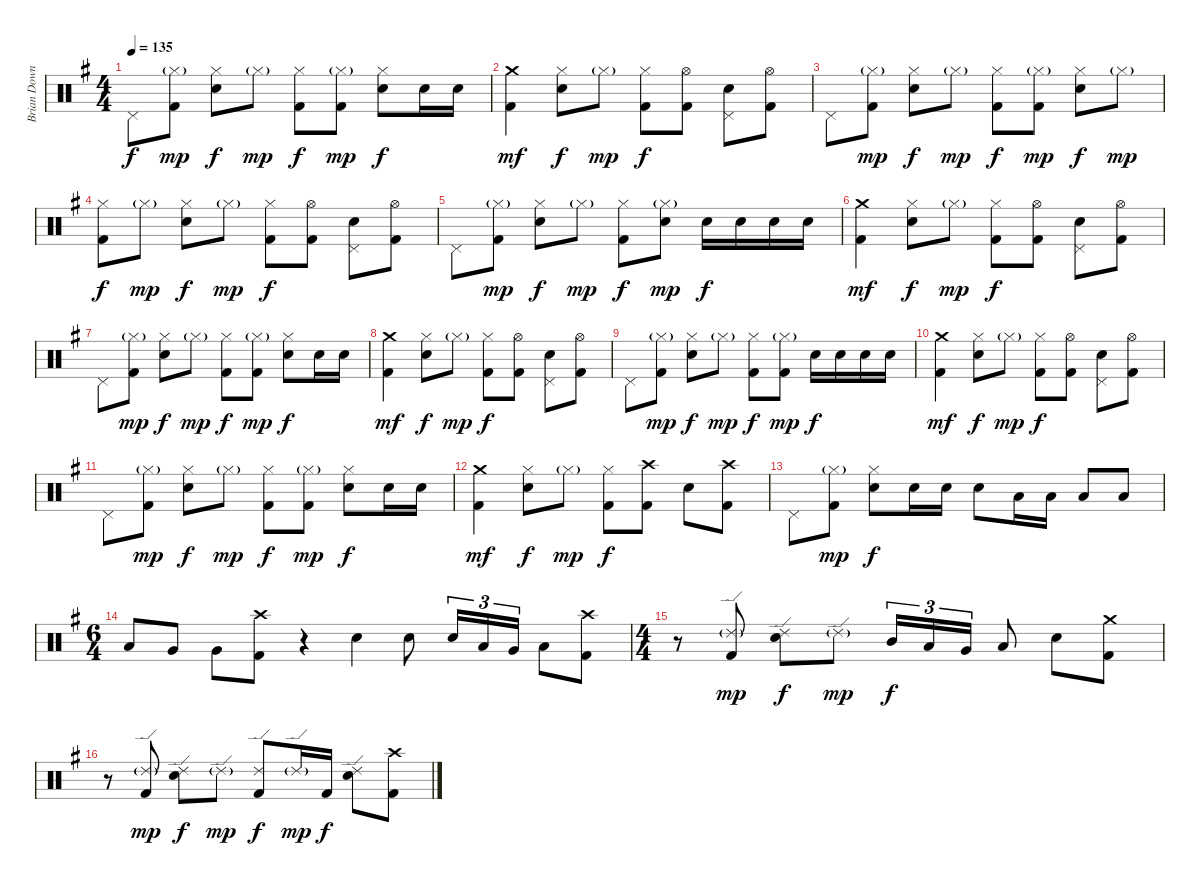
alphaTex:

\track ("Brian Downey" "Brian Down") {instrument percussion}
\staff {score}
\articulation defaults
\ts (4 4)
\tempo 135
\clef neutral
\ks eminor "Pedal Hi-Hat (hit)".8{dy f}
("Hi-Hat (closed)"{g} "Kick (hit) 2").8{dy mp} ("Hi-Hat (closed)" "Electric Snare (hit)").8{dy f} "Hi-Hat (closed)"{g}.8{dy mp} ("Hi-Hat (closed)" "Kick (hit) 2").8{dy f} ("Hi-Hat (closed)"{g} "Kick (hit) 2").8{dy mp} ("Hi-Hat (closed)" "Electric Snare (hit)").8{dy f} "Electric Snare (hit)".16 "Electric Snare (hit)".16 |
("Crash medium (hit)" "Kick (hit) 2").4{dy mf} ("Hi-Hat (closed)" "Electric Snare (hit)").8{dy f} "Hi-Hat (closed)"{g}.8{dy mp} ("Hi-Hat (closed)" "Kick (hit) 2").8{dy f} ("Hi-Hat (open)" "Kick (hit) 2").8 ("Pedal Hi-Hat (hit)" "Electric Snare (hit)").8 ("Hi-Hat (open)" "Kick (hit) 2").8 |
"Pedal Hi-Hat (hit)".8 ("Hi-Hat (closed)"{g} "Kick (hit) 2").8{dy mp} ("Hi-Hat (closed)" "Electric Snare (hit)").8{dy f} "Hi-Hat (closed)"{g}.8{dy mp} ("Hi-Hat (closed)" "Kick (hit) 2").8{dy f} ("Hi-Hat (closed)"{g} "Kick (hit) 2").8{dy mp} ("Hi-Hat (closed)" "Electric Snare (hit)").8{dy f} "Hi-Hat (closed)"{g}.8{dy mp} |
("Hi-Hat (closed)" "Kick (hit) 2").8{dy f} "Hi-Hat (closed)"{g}.8{dy mp} ("Hi-Hat (closed)" "Electric Snare (hit)").8{dy f} "Hi-Hat (closed)"{g}.8{dy mp} ("Hi-Hat (closed)" "Kick (hit) 2").8{dy f} ("Hi-Hat (open)" "Kick (hit) 2").8 ("Pedal Hi-Hat (hit)" "Electric Snare (hit)").8 ("Hi-Hat (open)" "Kick (hit) 2").8 |
"Pedal Hi-Hat (hit)".8 ("Hi-Hat (closed)"{g} "Kick (hit) 2").8{dy mp} ("Hi-Hat (closed)" "Electric Snare (hit)").8{dy f} "Hi-Hat (closed)"{g}.8{dy mp} ("Hi-Hat (closed)" "Kick (hit) 2").8{dy f} ("Hi-Hat (closed)"{g} "Electric Snare (hit)").8{dy mp} "Electric Snare (hit)".16{dy f} "Electric Snare (hit)".16 "Electric Snare (hit)".16 "Electric Snare (hit)".16 |
("Crash medium (hit)" "Kick (hit) 2").4{dy mf} ("Hi-Hat (closed)" "Electric Snare (hit)").8{dy f} "Hi-Hat (closed)"{g}.8{dy mp} ("Hi-Hat (closed)" "Kick (hit) 2").8{dy f} ("Hi-Hat (open)" "Kick (hit) 2").8 ("Pedal Hi-Hat (hit)" "Electric Snare (hit)").8 ("Hi-Hat (open)" "Kick (hit) 2").8 |
"Pedal Hi-Hat (hit)".8 ("Hi-Hat (closed)"{g} "Kick (hit) 2").8{dy mp} ("Hi-Hat (closed)" "Electric Snare (hit)").8{dy f} "Hi-Hat (closed)"{g}.8{dy mp} ("Hi-Hat (closed)" "Kick (hit) 2").8{dy f} ("Hi-Hat (closed)"{g} "Kick (hit) 2").8{dy mp} ("Hi-Hat (closed)" "Electric Snare (hit)").8{dy f} "Electric Snare (hit)".16 "Electric Snare (hit)".16 |
("Crash medium (hit)" "Kick (hit) 2").4{dy mf} ("Hi-Hat (closed)" "Electric Snare (hit)").8{dy f} "Hi-Hat (closed)"{g}.8{dy mp} ("Hi-Hat (closed)" "Kick (hit) 2").8{dy f} ("Hi-Hat (open)" "Kick (hit) 2").8 ("Pedal Hi-Hat (hit)" "Electric Snare (hit)").8 ("Hi-Hat (open)" "Kick (hit) 2").8 |
"Pedal Hi-Hat (hit)".8 ("Hi-Hat (closed)"{g} "Kick (hit) 2").8{dy mp} ("Hi-Hat (closed)" "Electric Snare (hit)").8{dy f} "Hi-Hat (closed)"{g}.8{dy mp} ("Hi-Hat (closed)" "Kick (hit) 2").8{dy f} ("Hi-Hat (closed)"{g} "Kick (hit) 2").8{dy mp} "Electric Snare (hit)".16{dy f} "Electric Snare (hit)".16 "Electric Snare (hit)".16 "Electric Snare (hit)".16 |
("Crash medium (hit)" "Kick (hit) 2").4{dy mf} ("Hi-Hat (closed)" "Electric Snare (hit)").8{dy f} "Hi-Hat (closed)"{g}.8{dy mp} ("Hi-Hat (closed)" "Kick (hit) 2").8{dy f} ("Hi-Hat (open)" "Kick (hit) 2").8 ("Pedal Hi-Hat (hit)" "Electric Snare (hit)").8 ("Hi-Hat (open)" "Kick (hit) 2").8 |
"Pedal Hi-Hat (hit)".8 ("Hi-Hat (closed)"{g} "Kick (hit) 2").8{dy mp} ("Hi-Hat (closed)" "Electric Snare (hit)").8{dy f} "Hi-Hat (closed)"{g}.8{dy mp} ("Hi-Hat (closed)" "Kick (hit) 2").8{dy f} ("Hi-Hat (closed)"{g} "Kick (hit) 2").8{dy mp} ("Hi-Hat (closed)" "Electric Snare (hit)").8{dy f} "Electric Snare (hit)".16 "Electric Snare (hit)".16 |
("Crash medium (hit)" "Kick (hit) 2").4{dy mf} ("Hi-Hat (closed)" "Electric Snare (hit)").8{dy f} "Hi-Hat (closed)"{g}.8{dy mp} ("Hi-Hat (closed)" "Kick (hit) 2").8{dy f} ("Crash high (hit)" "Kick (hit) 2").8 "Electric Snare (hit)".8 ("Crash high (hit)" "Kick (hit) 2").8 |
"Pedal Hi-Hat (hit)".8 ("Hi-Hat (closed)"{g} "Kick (hit) 2").8{dy mp} ("Hi-Hat (closed)" "Electric Snare (hit)").8{dy f} "Electric Snare (hit)".16 "Electric Snare (hit)".16 "Electric Snare (hit)".8 "Low Tom (hit)".16 "Low Tom (hit)".16 "Low Tom (hit)".8 "Low Tom (hit)".8 |
\ts (6 4)
"Low Tom (hit)".8 "Very Low Tom (hit)".8 "Very Low Tom (hit)".8 ("Crash high (hit)" "Kick (hit) 2").8 r.4 "Electric Snare (hit)".4 "Electric Snare (hit)".8 "Electric Snare (hit)".16{tu (3 2)} "Low Tom (hit)".16{tu (3 2)} "Very Low Tom (hit)".16{tu (3 2)} "Low Floor Tom (hit)".8 ("Crash high (hit)" "Kick (hit) 2").8 |
\ts (4 4)
r.8 ("Ride (edge) 2"{g} "Kick (hit) 2").8{dy mp} ("Ride (edge) 2" "Electric Snare (hit)").8{dy f} "Ride (edge) 2"{g}.8{dy mp} "Mid Tom (hit)".16{tu (3 2) dy f} "Low Tom (hit)".16{tu (3 2)} "Very Low Tom (hit)".16{tu (3 2)} "Low Floor Tom (hit)".8 "Electric Snare (hit)".8 ("Crash medium (hit)" "Kick (hit) 2").8 |
r.8 ("Ride (edge) 2"{g} "Kick (hit) 2").8{dy mp} ("Ride (edge) 2" "Electric Snare (hit)").8{dy f} "Ride (edge) 2"{g}.8{dy mp} ("Ride (edge) 2" "Kick (hit) 2").8{dy f} "Ride (edge) 2"{g}.16{dy mp} "Kick (hit) 2".16{dy f} ("Ride (edge) 2" "Electric Snare (hit)").8 ("Crash high (hit)" "Kick (hit) 2").8
